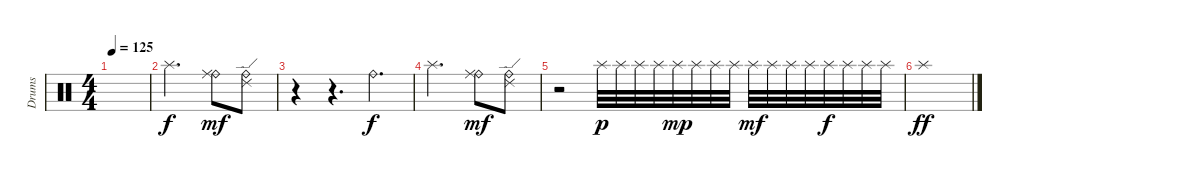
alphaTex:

\track ("Drums" "Drums") {instrument percussion}
\staff {score}
\articulation defaults
\ts (4 4)
\tempo 125
\clef neutral
\ks c
|
"Splash (hit)".2{d} ("Ride (bell)" "Ride (middle)").8{dy mf} ("Ride (bell)" "Ride (edge) 2").8 |
r.4 r.4{d} "Ride (bell)".4{d dy f} |
"Splash (hit)".2{d} ("Ride (bell)" "Ride (middle)").8{dy mf} ("Ride (bell)" "Ride (edge) 2").8 |
r.2 "Splash (hit)".32{dy p} "Splash (hit)".32 "Splash (hit)".32 "Splash (hit)".32 "Splash (hit)".32{dy mp} "Splash (hit)".32 "Splash (hit)".32 "Splash (hit)".32 "Splash (hit)".32{dy mf} "Splash (hit)".32 "Splash (hit)".32 "Splash (hit)".32 "Splash (hit)".32{dy f} "Splash (hit)".32 "Splash (hit)".32 "Splash (hit)".32 |
"Splash (hit)".1{dy ff}
